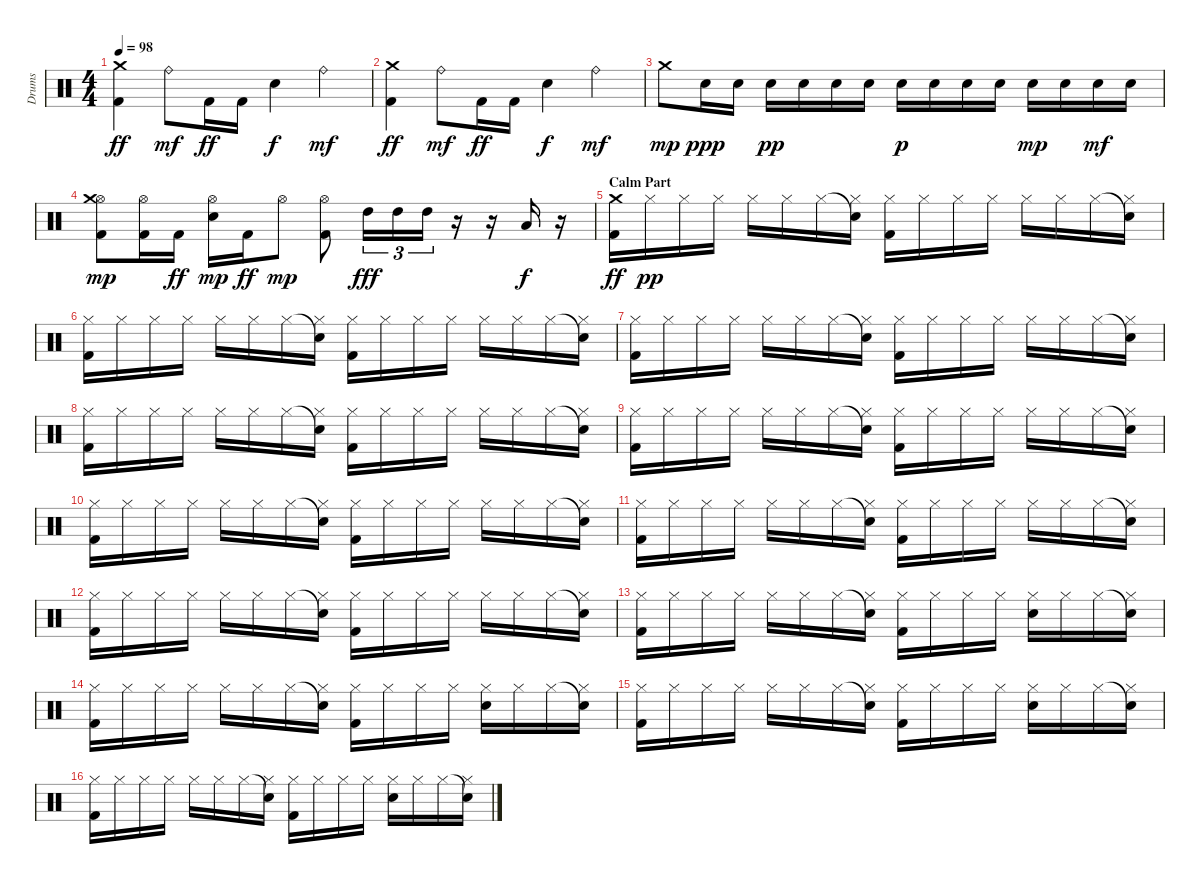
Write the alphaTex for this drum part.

\track ("Drums" "Drums") {instrument percussion}
\staff {score}
\articulation defaults
\ts (4 4)
\tempo 98
\clef neutral
\ks c
("Kick (hit) 2" "Crash medium (hit)").4{dy ff} "Ride (bell)".8{dy mf} "Kick (hit) 2".16{dy ff} "Kick (hit) 2".16 "Snare (hit) 2".4{dy f} "Ride (bell)".4{dy mf} |
("Kick (hit) 2" "Crash medium (hit)").4{dy ff} "Ride (bell)".8{dy mf} "Kick (hit) 2".16{dy ff} "Kick (hit) 2".16 "Snare (hit) 2".4{dy f} "Ride (bell)".4{dy mf} |
"Crash medium (hit)".8{dy mp} "Snare (hit) 2".16{dy ppp} "Snare (hit) 2".16 "Snare (hit) 2".16{dy pp} "Snare (hit) 2".16 "Snare (hit) 2".16 "Snare (hit) 2".16 "Snare (hit) 2".16{dy p} "Snare (hit) 2".16 "Snare (hit) 2".16 "Snare (hit) 2".16 "Snare (hit) 2".16{dy mp} "Snare (hit) 2".16 "Snare (hit) 2".16{dy mf} "Snare (hit) 2".16 |
("Kick (hit) 2" "Hi-Hat (open)" "Crash medium (hit)").8{dy mp} ("Kick (hit) 2" "Hi-Hat (open)").16 "Kick (hit) 2".16{dy ff} ("Hi-Hat (open)" "Snare (hit) 2").16{dy mp} "Kick (hit) 2".16{dy ff} "Hi-Hat (open)".8{dy mp} ("Kick (hit) 2" "Hi-Hat (open)").8 "High Tom (hit)".16{tu (3 2) dy fff} "High Tom (hit)".16{tu (3 2)} "High Tom (hit)".16{tu (3 2)} r.16 r.16 "Low Floor Tom (hit)".16{dy f} r.16 |
\section ("" "Calm Part")
("Kick (hit) 2" "Crash medium (hit)").16{dy ff} "Hi-Hat (closed)".16{dy pp} "Hi-Hat (closed)".16 "Hi-Hat (closed)".16 "Hi-Hat (closed)".16 "Hi-Hat (closed)".16 "Hi-Hat (closed)".16 ("Snare (hit)"{t} "Hi-Hat (closed)").16 ("Kick (hit) 2" "Hi-Hat (closed)").16 "Hi-Hat (closed)".16 "Hi-Hat (closed)".16 "Hi-Hat (closed)".16 "Hi-Hat (closed)".16 "Hi-Hat (closed)".16 "Hi-Hat (closed)".16 ("Snare (hit)"{t} "Hi-Hat (closed)").16 |
("Kick (hit) 2" "Hi-Hat (closed)").16 "Hi-Hat (closed)".16 "Hi-Hat (closed)".16 "Hi-Hat (closed)".16 "Hi-Hat (closed)".16 "Hi-Hat (closed)".16 "Hi-Hat (closed)".16 ("Snare (hit)"{t} "Hi-Hat (closed)").16 ("Kick (hit) 2" "Hi-Hat (closed)").16 "Hi-Hat (closed)".16 "Hi-Hat (closed)".16 "Hi-Hat (closed)".16 "Hi-Hat (closed)".16 "Hi-Hat (closed)".16 "Hi-Hat (closed)".16 ("Snare (hit)"{t} "Hi-Hat (closed)").16 |
("Kick (hit) 2" "Hi-Hat (closed)").16 "Hi-Hat (closed)".16 "Hi-Hat (closed)".16 "Hi-Hat (closed)".16 "Hi-Hat (closed)".16 "Hi-Hat (closed)".16 "Hi-Hat (closed)".16 ("Snare (hit)"{t} "Hi-Hat (closed)").16 ("Kick (hit) 2" "Hi-Hat (closed)").16 "Hi-Hat (closed)".16 "Hi-Hat (closed)".16 "Hi-Hat (closed)".16 "Hi-Hat (closed)".16 "Hi-Hat (closed)".16 "Hi-Hat (closed)".16 ("Snare (hit)"{t} "Hi-Hat (closed)").16 |
("Kick (hit) 2" "Hi-Hat (closed)").16 "Hi-Hat (closed)".16 "Hi-Hat (closed)".16 "Hi-Hat (closed)".16 "Hi-Hat (closed)".16 "Hi-Hat (closed)".16 "Hi-Hat (closed)".16 ("Snare (hit)"{t} "Hi-Hat (closed)").16 ("Kick (hit) 2" "Hi-Hat (closed)").16 "Hi-Hat (closed)".16 "Hi-Hat (closed)".16 "Hi-Hat (closed)".16 "Hi-Hat (closed)".16 "Hi-Hat (closed)".16 "Hi-Hat (closed)".16 ("Snare (hit)"{t} "Hi-Hat (closed)").16 |
("Kick (hit) 2" "Hi-Hat (closed)").16 "Hi-Hat (closed)".16 "Hi-Hat (closed)".16 "Hi-Hat (closed)".16 "Hi-Hat (closed)".16 "Hi-Hat (closed)".16 "Hi-Hat (closed)".16 ("Snare (hit)"{t} "Hi-Hat (closed)").16 ("Kick (hit) 2" "Hi-Hat (closed)").16 "Hi-Hat (closed)".16 "Hi-Hat (closed)".16 "Hi-Hat (closed)".16 "Hi-Hat (closed)".16 "Hi-Hat (closed)".16 "Hi-Hat (closed)".16 ("Snare (hit)"{t} "Hi-Hat (closed)").16 |
("Kick (hit) 2" "Hi-Hat (closed)").16 "Hi-Hat (closed)".16 "Hi-Hat (closed)".16 "Hi-Hat (closed)".16 "Hi-Hat (closed)".16 "Hi-Hat (closed)".16 "Hi-Hat (closed)".16 ("Snare (hit)"{t} "Hi-Hat (closed)").16 ("Kick (hit) 2" "Hi-Hat (closed)").16 "Hi-Hat (closed)".16 "Hi-Hat (closed)".16 "Hi-Hat (closed)".16 "Hi-Hat (closed)".16 "Hi-Hat (closed)".16 "Hi-Hat (closed)".16 ("Snare (hit)"{t} "Hi-Hat (closed)").16 |
("Kick (hit) 2" "Hi-Hat (closed)").16 "Hi-Hat (closed)".16 "Hi-Hat (closed)".16 "Hi-Hat (closed)".16 "Hi-Hat (closed)".16 "Hi-Hat (closed)".16 "Hi-Hat (closed)".16 ("Snare (hit)"{t} "Hi-Hat (closed)").16 ("Kick (hit) 2" "Hi-Hat (closed)").16 "Hi-Hat (closed)".16 "Hi-Hat (closed)".16 "Hi-Hat (closed)".16 "Hi-Hat (closed)".16 "Hi-Hat (closed)".16 "Hi-Hat (closed)".16 ("Snare (hit)"{t} "Hi-Hat (closed)").16 |
("Kick (hit) 2" "Hi-Hat (closed)").16 "Hi-Hat (closed)".16 "Hi-Hat (closed)".16 "Hi-Hat (closed)".16 "Hi-Hat (closed)".16 "Hi-Hat (closed)".16 "Hi-Hat (closed)".16 ("Snare (hit)"{t} "Hi-Hat (closed)").16 ("Kick (hit) 2" "Hi-Hat (closed)").16 "Hi-Hat (closed)".16 "Hi-Hat (closed)".16 "Hi-Hat (closed)".16 "Hi-Hat (closed)".16 "Hi-Hat (closed)".16 "Hi-Hat (closed)".16 ("Snare (hit)"{t} "Hi-Hat (closed)").16 |
("Kick (hit) 2" "Hi-Hat (closed)").16 "Hi-Hat (closed)".16 "Hi-Hat (closed)".16 "Hi-Hat (closed)".16 "Hi-Hat (closed)".16 "Hi-Hat (closed)".16 "Hi-Hat (closed)".16 ("Snare (hit)"{t} "Hi-Hat (closed)").16 ("Kick (hit) 2" "Hi-Hat (closed)").16 "Hi-Hat (closed)".16 "Hi-Hat (closed)".16 "Hi-Hat (closed)".16 ("Hi-Hat (closed)" "Snare (hit) 2").16 "Hi-Hat (closed)".16 "Hi-Hat (closed)".16 ("Snare (hit)"{t} "Hi-Hat (closed)").16 |
("Kick (hit) 2" "Hi-Hat (closed)").16 "Hi-Hat (closed)".16 "Hi-Hat (closed)".16 "Hi-Hat (closed)".16 "Hi-Hat (closed)".16 "Hi-Hat (closed)".16 "Hi-Hat (closed)".16 ("Snare (hit)"{t} "Hi-Hat (closed)").16 ("Kick (hit) 2" "Hi-Hat (closed)").16 "Hi-Hat (closed)".16 "Hi-Hat (closed)".16 "Hi-Hat (closed)".16 ("Hi-Hat (closed)" "Snare (hit) 2").16 "Hi-Hat (closed)".16 "Hi-Hat (closed)".16 ("Snare (hit)"{t} "Hi-Hat (closed)").16 |
("Kick (hit) 2" "Hi-Hat (closed)").16 "Hi-Hat (closed)".16 "Hi-Hat (closed)".16 "Hi-Hat (closed)".16 "Hi-Hat (closed)".16 "Hi-Hat (closed)".16 "Hi-Hat (closed)".16 ("Snare (hit)"{t} "Hi-Hat (closed)").16 ("Kick (hit) 2" "Hi-Hat (closed)").16 "Hi-Hat (closed)".16 "Hi-Hat (closed)".16 "Hi-Hat (closed)".16 ("Hi-Hat (closed)" "Snare (hit) 2").16 "Hi-Hat (closed)".16 "Hi-Hat (closed)".16 ("Snare (hit)"{t} "Hi-Hat (closed)").16 |
("Kick (hit) 2" "Hi-Hat (closed)").16 "Hi-Hat (closed)".16 "Hi-Hat (closed)".16 "Hi-Hat (closed)".16 "Hi-Hat (closed)".16 "Hi-Hat (closed)".16 "Hi-Hat (closed)".16 ("Snare (hit)"{t} "Hi-Hat (closed)").16 ("Kick (hit) 2" "Hi-Hat (closed)").16 "Hi-Hat (closed)".16 "Hi-Hat (closed)".16 "Hi-Hat (closed)".16 ("Hi-Hat (closed)" "Snare (hit) 2").16 "Hi-Hat (closed)".16 "Hi-Hat (closed)".16 ("Snare (hit)"{t} "Hi-Hat (closed)").16
